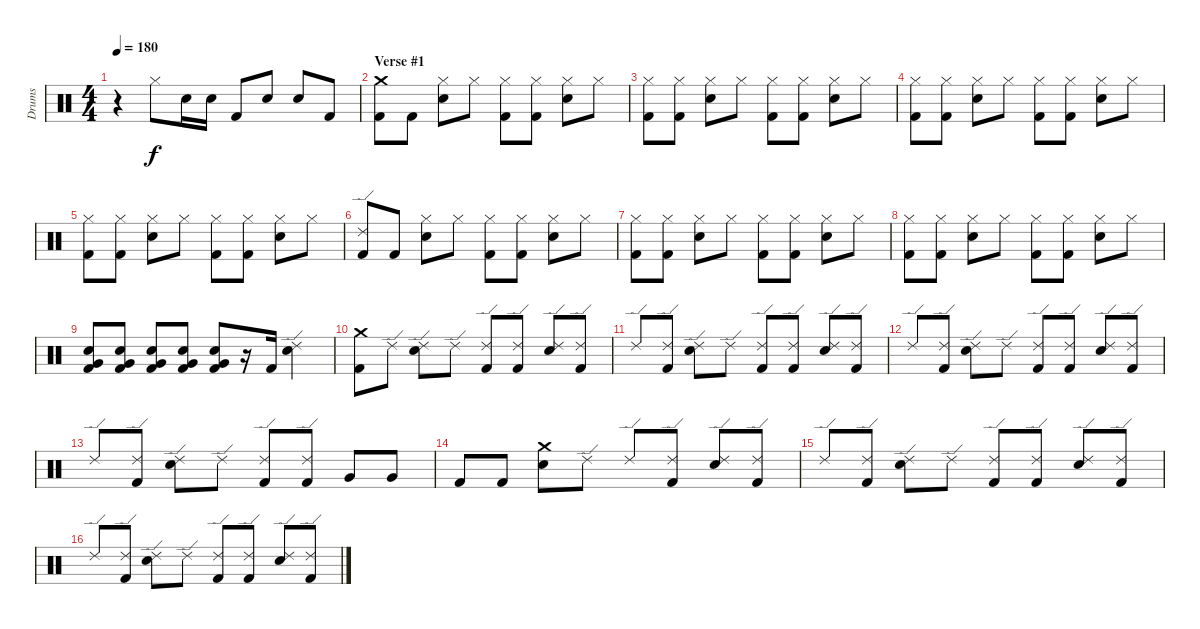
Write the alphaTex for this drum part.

\track ("Drums" "Drums") {instrument percussion}
\staff {score}
\articulation defaults
\ts (4 4)
\tempo 180
\clef neutral
\ks c
r.4{dy f} "Hi-Hat (closed)".8 "Electric Snare (hit)".16 "Electric Snare (hit)".16 "Kick (hit) 2".8 "Electric Snare (hit)".8 "Electric Snare (hit)".8 "Kick (hit) 2".8 |
\section ("" "Verse #1")
("Crash medium (hit)" "Kick (hit) 2").8 "Kick (hit) 2".8 ("Hi-Hat (closed)" "Electric Snare (hit)").8 "Hi-Hat (closed)".8 ("Hi-Hat (closed)" "Kick (hit) 2").8 ("Hi-Hat (closed)" "Kick (hit) 2").8 ("Hi-Hat (closed)" "Electric Snare (hit)").8 "Hi-Hat (closed)".8 |
("Hi-Hat (closed)" "Kick (hit) 2").8 ("Hi-Hat (closed)" "Kick (hit) 2").8 ("Hi-Hat (closed)" "Electric Snare (hit)").8 "Hi-Hat (closed)".8 ("Hi-Hat (closed)" "Kick (hit) 2").8 ("Hi-Hat (closed)" "Kick (hit) 2").8 ("Hi-Hat (closed)" "Electric Snare (hit)").8 "Hi-Hat (closed)".8 |
("Hi-Hat (closed)" "Kick (hit) 2").8 ("Hi-Hat (closed)" "Kick (hit) 2").8 ("Hi-Hat (closed)" "Electric Snare (hit)").8 "Hi-Hat (closed)".8 ("Hi-Hat (closed)" "Kick (hit) 2").8 ("Hi-Hat (closed)" "Kick (hit) 2").8 ("Hi-Hat (closed)" "Electric Snare (hit)").8 "Hi-Hat (closed)".8 |
("Hi-Hat (closed)" "Kick (hit) 2").8 ("Hi-Hat (closed)" "Kick (hit) 2").8 ("Hi-Hat (closed)" "Electric Snare (hit)").8 "Hi-Hat (closed)".8 ("Hi-Hat (closed)" "Kick (hit) 2").8 ("Hi-Hat (closed)" "Kick (hit) 2").8 ("Hi-Hat (closed)" "Electric Snare (hit)").8 "Hi-Hat (closed)".8 |
("Ride (edge) 2" "Kick (hit) 2").8 "Kick (hit) 2".8 ("Hi-Hat (closed)" "Electric Snare (hit)").8 "Hi-Hat (closed)".8 ("Hi-Hat (closed)" "Kick (hit) 2").8 ("Hi-Hat (closed)" "Kick (hit) 2").8 ("Hi-Hat (closed)" "Electric Snare (hit)").8 "Hi-Hat (closed)".8 |
("Hi-Hat (closed)" "Kick (hit) 2").8 ("Hi-Hat (closed)" "Kick (hit) 2").8 ("Hi-Hat (closed)" "Electric Snare (hit)").8 "Hi-Hat (closed)".8 ("Hi-Hat (closed)" "Kick (hit) 2").8 ("Hi-Hat (closed)" "Kick (hit) 2").8 ("Hi-Hat (closed)" "Electric Snare (hit)").8 "Hi-Hat (closed)".8 |
("Hi-Hat (closed)" "Kick (hit) 2").8 ("Hi-Hat (closed)" "Kick (hit) 2").8 ("Hi-Hat (closed)" "Electric Snare (hit)").8 "Hi-Hat (closed)".8 ("Hi-Hat (closed)" "Kick (hit) 2").8 ("Hi-Hat (closed)" "Kick (hit) 2").8 ("Hi-Hat (closed)" "Electric Snare (hit)").8 "Hi-Hat (closed)".8 |
("Very Low Tom (hit)" "Electric Snare (hit)" "Kick (hit) 2").8 ("Very Low Tom (hit)" "Electric Snare (hit)" "Kick (hit) 2").8 ("Very Low Tom (hit)" "Electric Snare (hit)" "Kick (hit) 2").8 ("Very Low Tom (hit)" "Electric Snare (hit)" "Kick (hit) 2").8 ("Very Low Tom (hit)" "Electric Snare (hit)" "Kick (hit) 2").8 r.16 "Kick (hit) 2".16 ("Ride (edge) 2" "Electric Snare (hit)").4 |
("Crash medium (hit)" "Kick (hit) 2").8 "Ride (edge) 2".8 ("Ride (edge) 2" "Electric Snare (hit)").8 "Ride (edge) 2".8 ("Ride (edge) 2" "Kick (hit) 2").8 ("Ride (edge) 2" "Kick (hit) 2").8 ("Ride (edge) 2" "Electric Snare (hit)").8 ("Ride (edge) 2" "Kick (hit) 2").8 |
"Ride (edge) 2".8 ("Ride (edge) 2" "Kick (hit) 2").8 ("Ride (edge) 2" "Electric Snare (hit)").8 "Ride (edge) 2".8 ("Ride (edge) 2" "Kick (hit) 2").8 ("Ride (edge) 2" "Kick (hit) 2").8 ("Ride (edge) 2" "Electric Snare (hit)").8 ("Ride (edge) 2" "Kick (hit) 2").8 |
"Ride (edge) 2".8 ("Ride (edge) 2" "Kick (hit) 2").8 ("Ride (edge) 2" "Electric Snare (hit)").8 "Ride (edge) 2".8 ("Ride (edge) 2" "Kick (hit) 2").8 ("Ride (edge) 2" "Kick (hit) 2").8 ("Ride (edge) 2" "Electric Snare (hit)").8 ("Ride (edge) 2" "Kick (hit) 2").8 |
"Ride (edge) 2".8 ("Ride (edge) 2" "Kick (hit) 2").8 ("Ride (edge) 2" "Electric Snare (hit)").8 "Ride (edge) 2".8 ("Ride (edge) 2" "Kick (hit) 2").8 ("Ride (edge) 2" "Kick (hit) 2").8 "Very Low Tom (hit)".8 "Very Low Tom (hit)".8 |
"Kick (hit) 2".8 "Kick (hit) 2".8 ("Crash medium (hit)" "Electric Snare (hit)").8 "Ride (edge) 2".8 "Ride (edge) 2".8 ("Ride (edge) 2" "Kick (hit) 2").8 ("Ride (edge) 2" "Electric Snare (hit)").8 ("Ride (edge) 2" "Kick (hit) 2").8 |
"Ride (edge) 2".8 ("Ride (edge) 2" "Kick (hit) 2").8 ("Ride (edge) 2" "Electric Snare (hit)").8 "Ride (edge) 2".8 ("Ride (edge) 2" "Kick (hit) 2").8 ("Ride (edge) 2" "Kick (hit) 2").8 ("Ride (edge) 2" "Electric Snare (hit)").8 ("Ride (edge) 2" "Kick (hit) 2").8 |
"Ride (edge) 2".8 ("Ride (edge) 2" "Kick (hit) 2").8 ("Ride (edge) 2" "Electric Snare (hit)").8 "Ride (edge) 2".8 ("Ride (edge) 2" "Kick (hit) 2").8 ("Ride (edge) 2" "Kick (hit) 2").8 ("Ride (edge) 2" "Electric Snare (hit)").8 ("Ride (edge) 2" "Kick (hit) 2").8
